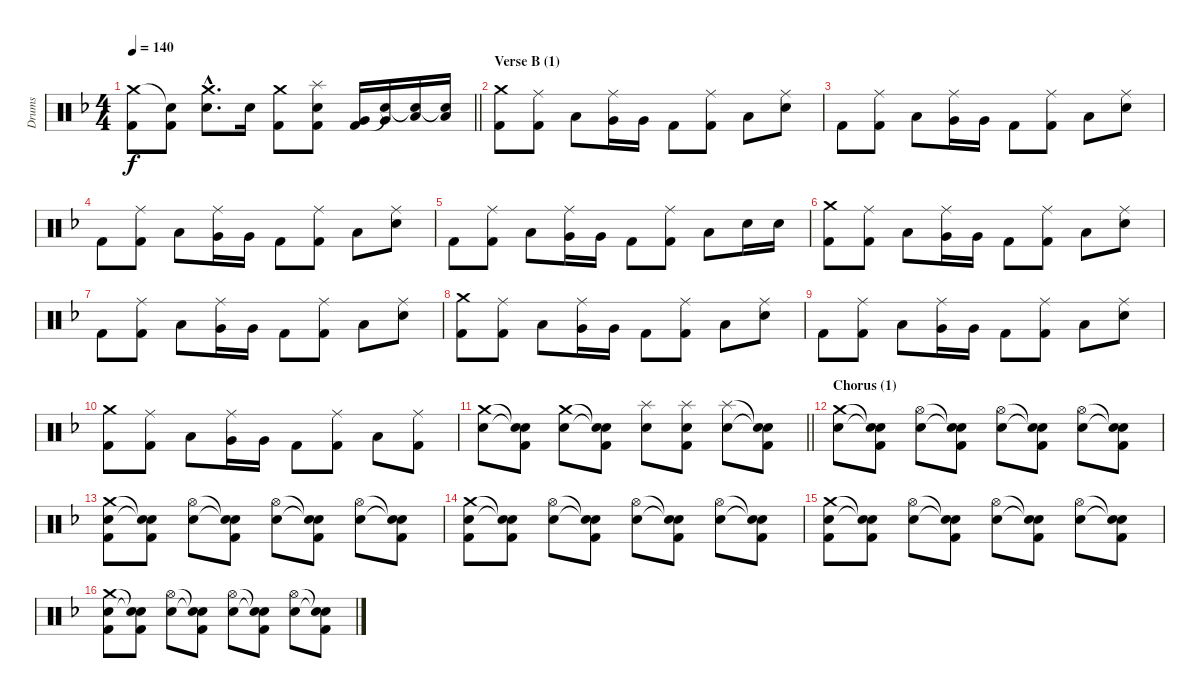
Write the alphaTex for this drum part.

\track ("Drums" "Drums") {instrument percussion}
\staff {score}
\articulation defaults
\ts (4 4)
\tempo 140
\clef neutral
\barLineRight lightlight
\ks f
("Crash medium (hit)" "Kick (hit) 2").8{dy f} ("Snare (hit)"{t} "Kick (hit) 2").8 ("Crash medium (hit)"{hac} "Electric Snare (hit)"{hac}).8{d} "Electric Snare (hit)".16 ("Crash medium (hit)" "Kick (hit) 2").8 ("Splash (hit)" "Electric Snare (hit)" "Kick (hit) 2").8 ("Very Low Tom (hit)" "Kick (hit) 2").16 ("Very Low Tom (hit)" "Snare (hit)"{t}).16 ("Low Floor Tom (hit)" "Snare (hit)"{t}).16 ("Low Floor Tom (hit)" "Snare (hit)"{t}).16 |
\section ("" "Verse B (1)")
("Crash medium (hit)" "Kick (hit) 2").8 ("Ride (middle)" "Kick (hit) 2").8 "Low Tom (hit)".8 ("Ride (middle)" "Very Low Tom (hit)").16 "Very Low Tom (hit)".16 "Kick (hit) 2".8 ("Ride (middle)" "Kick (hit) 2").8 "Low Floor Tom (hit)".8 ("Ride (middle)" "Electric Snare (hit)").8 |
"Kick (hit) 2".8 ("Ride (middle)" "Kick (hit) 2").8 "Low Tom (hit)".8 ("Ride (middle)" "Very Low Tom (hit)").16 "Very Low Tom (hit)".16 "Kick (hit) 2".8 ("Ride (middle)" "Kick (hit) 2").8 "Low Floor Tom (hit)".8 ("Ride (middle)" "Electric Snare (hit)").8 |
"Kick (hit) 2".8 ("Ride (middle)" "Kick (hit) 2").8 "Low Tom (hit)".8 ("Ride (middle)" "Very Low Tom (hit)").16 "Very Low Tom (hit)".16 "Kick (hit) 2".8 ("Ride (middle)" "Kick (hit) 2").8 "Low Floor Tom (hit)".8 ("Ride (middle)" "Electric Snare (hit)").8 |
"Kick (hit) 2".8 ("Ride (middle)" "Kick (hit) 2").8 "Low Tom (hit)".8 ("Ride (middle)" "Very Low Tom (hit)").16 "Very Low Tom (hit)".16 "Kick (hit) 2".8 ("Ride (middle)" "Kick (hit) 2").8 "Low Floor Tom (hit)".8 "Electric Snare (hit)".16 "Electric Snare (hit)".16 |
("Crash medium (hit)" "Kick (hit) 2").8 ("Ride (middle)" "Kick (hit) 2").8 "Low Tom (hit)".8 ("Ride (middle)" "Very Low Tom (hit)").16 "Very Low Tom (hit)".16 "Kick (hit) 2".8 ("Ride (middle)" "Kick (hit) 2").8 "Low Floor Tom (hit)".8 ("Ride (middle)" "Electric Snare (hit)").8 |
"Kick (hit) 2".8 ("Ride (middle)" "Kick (hit) 2").8 "Low Tom (hit)".8 ("Ride (middle)" "Very Low Tom (hit)").16 "Very Low Tom (hit)".16 "Kick (hit) 2".8 ("Ride (middle)" "Kick (hit) 2").8 "Low Floor Tom (hit)".8 ("Ride (middle)" "Electric Snare (hit)").8 |
("Crash medium (hit)" "Kick (hit) 2").8 ("Ride (middle)" "Kick (hit) 2").8 "Low Tom (hit)".8 ("Ride (middle)" "Very Low Tom (hit)").16 "Very Low Tom (hit)".16 "Kick (hit) 2".8 ("Ride (middle)" "Kick (hit) 2").8 "Low Floor Tom (hit)".8 ("Ride (middle)" "Electric Snare (hit)").8 |
"Kick (hit) 2".8 ("Ride (middle)" "Kick (hit) 2").8 "Low Tom (hit)".8 ("Ride (middle)" "Very Low Tom (hit)").16 "Very Low Tom (hit)".16 "Kick (hit) 2".8 ("Ride (middle)" "Kick (hit) 2").8 "Low Floor Tom (hit)".8 ("Ride (middle)" "Electric Snare (hit)").8 |
("Crash medium (hit)" "Kick (hit) 2").8 ("Ride (middle)" "Kick (hit) 2").8 "Low Tom (hit)".8 ("Ride (middle)" "Very Low Tom (hit)").16 "Very Low Tom (hit)".16 "Kick (hit) 2".8 ("Ride (middle)" "Kick (hit) 2").8 "Low Floor Tom (hit)".8 ("Ride (middle)" "Kick (hit) 2").8 |
\barLineRight lightlight
("Crash medium (hit)" "Electric Snare (hit)").8 ("Snare (hit)"{t} "Snare (hit)"{t} "Kick (hit) 2").8 ("Crash medium (hit)" "Electric Snare (hit)").8 ("Snare (hit)"{t} "Snare (hit)"{t} "Kick (hit) 2").8 ("Splash (hit)" "Electric Snare (hit)").8 ("Splash (hit)" "Electric Snare (hit)" "Kick (hit) 2").8 ("Splash (hit)" "Electric Snare (hit)").8 ("Snare (hit)"{t} "Snare (hit)"{t} "Kick (hit) 2").8 |
\section ("" "Chorus (1)")
("Crash medium (hit)" "Electric Snare (hit)").8 ("Snare (hit)"{t} "Snare (hit)"{t} "Kick (hit) 2").8 ("Hi-Hat (open)" "Electric Snare (hit)").8 ("Snare (hit)"{t} "Snare (hit)"{t} "Kick (hit) 2").8 ("Hi-Hat (open)" "Electric Snare (hit)").8 ("Snare (hit)"{t} "Snare (hit)"{t} "Kick (hit) 2").8 ("Hi-Hat (open)" "Electric Snare (hit)").8 ("Snare (hit)"{t} "Snare (hit)"{t} "Kick (hit) 2").8 |
("Crash medium (hit)" "Electric Snare (hit)" "Kick (hit) 2").8 ("Snare (hit)"{t} "Snare (hit)"{t} "Kick (hit) 2").8 ("Hi-Hat (open)" "Electric Snare (hit)").8 ("Snare (hit)"{t} "Snare (hit)"{t} "Kick (hit) 2").8 ("Hi-Hat (open)" "Electric Snare (hit)").8 ("Snare (hit)"{t} "Snare (hit)"{t} "Kick (hit) 2").8 ("Hi-Hat (open)" "Electric Snare (hit)").8 ("Snare (hit)"{t} "Snare (hit)"{t} "Kick (hit) 2").8 |
("Crash medium (hit)" "Electric Snare (hit)" "Kick (hit) 2").8 ("Snare (hit)"{t} "Snare (hit)"{t} "Kick (hit) 2").8 ("Hi-Hat (open)" "Electric Snare (hit)").8 ("Snare (hit)"{t} "Snare (hit)"{t} "Kick (hit) 2").8 ("Hi-Hat (open)" "Electric Snare (hit)").8 ("Snare (hit)"{t} "Snare (hit)"{t} "Kick (hit) 2").8 ("Hi-Hat (open)" "Electric Snare (hit)").8 ("Snare (hit)"{t} "Snare (hit)"{t} "Kick (hit) 2").8 |
("Crash medium (hit)" "Electric Snare (hit)" "Kick (hit) 2").8 ("Snare (hit)"{t} "Snare (hit)"{t} "Kick (hit) 2").8 ("Hi-Hat (open)" "Electric Snare (hit)").8 ("Snare (hit)"{t} "Snare (hit)"{t} "Kick (hit) 2").8 ("Hi-Hat (open)" "Electric Snare (hit)").8 ("Snare (hit)"{t} "Snare (hit)"{t} "Kick (hit) 2").8 ("Hi-Hat (open)" "Electric Snare (hit)").8 ("Snare (hit)"{t} "Snare (hit)"{t} "Kick (hit) 2").8 |
("Crash medium (hit)" "Electric Snare (hit)" "Kick (hit) 2").8 ("Snare (hit)"{t} "Snare (hit)"{t} "Kick (hit) 2").8 ("Hi-Hat (open)" "Electric Snare (hit)").8 ("Snare (hit)"{t} "Snare (hit)"{t} "Kick (hit) 2").8 ("Hi-Hat (open)" "Electric Snare (hit)").8 ("Snare (hit)"{t} "Snare (hit)"{t} "Kick (hit) 2").8 ("Hi-Hat (open)" "Electric Snare (hit)").8 ("Snare (hit)"{t} "Snare (hit)"{t} "Kick (hit) 2").8
